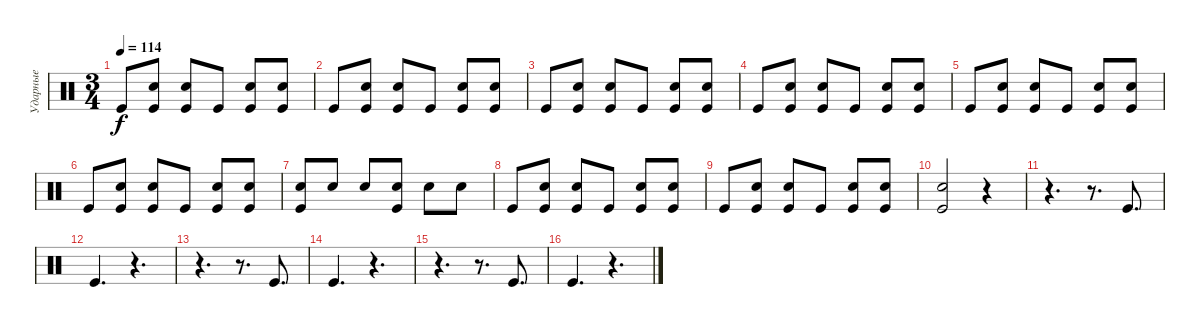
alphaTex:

\track ("Ударные" "Ударные") {instrument percussion}
\staff {score}
\articulation defaults
\ts (3 4)
\tempo 114
\clef neutral
\ks c "Kick (hit)".8{dy f}
("Snare (hit) 2" "Kick (hit)").8 ("Snare (hit) 2" "Kick (hit)").8 "Kick (hit)".8 ("Snare (hit) 2" "Kick (hit)").8 ("Snare (hit) 2" "Kick (hit)").8 |
"Kick (hit)".8 ("Snare (hit) 2" "Kick (hit)").8 ("Snare (hit) 2" "Kick (hit)").8 "Kick (hit)".8 ("Snare (hit) 2" "Kick (hit)").8 ("Snare (hit) 2" "Kick (hit)").8 |
"Kick (hit)".8 ("Snare (hit) 2" "Kick (hit)").8 ("Snare (hit) 2" "Kick (hit)").8 "Kick (hit)".8 ("Snare (hit) 2" "Kick (hit)").8 ("Snare (hit) 2" "Kick (hit)").8 |
"Kick (hit)".8 ("Snare (hit) 2" "Kick (hit)").8 ("Snare (hit) 2" "Kick (hit)").8 "Kick (hit)".8 ("Snare (hit) 2" "Kick (hit)").8 ("Snare (hit) 2" "Kick (hit)").8 |
"Kick (hit)".8 ("Snare (hit) 2" "Kick (hit)").8 ("Snare (hit) 2" "Kick (hit)").8 "Kick (hit)".8 ("Snare (hit) 2" "Kick (hit)").8 ("Snare (hit) 2" "Kick (hit)").8 |
"Kick (hit)".8 ("Snare (hit) 2" "Kick (hit)").8 ("Snare (hit) 2" "Kick (hit)").8 "Kick (hit)".8 ("Snare (hit) 2" "Kick (hit)").8 ("Snare (hit) 2" "Kick (hit)").8 |
("Kick (hit)" "Snare (hit) 2").8 "Snare (hit) 2".8 "Snare (hit) 2".8 ("Kick (hit)" "Snare (hit) 2").8 "Snare (hit) 2".8 "Snare (hit) 2".8 |
"Kick (hit)".8 ("Snare (hit) 2" "Kick (hit)").8 ("Snare (hit) 2" "Kick (hit)").8 "Kick (hit)".8 ("Snare (hit) 2" "Kick (hit)").8 ("Snare (hit) 2" "Kick (hit)").8 |
"Kick (hit)".8 ("Snare (hit) 2" "Kick (hit)").8 ("Snare (hit) 2" "Kick (hit)").8 "Kick (hit)".8 ("Snare (hit) 2" "Kick (hit)").8 ("Snare (hit) 2" "Kick (hit)").8 |
("Snare (hit) 2" "Kick (hit)").2{volume 15} r.4 |
r.4{d volume 7} r.8{d} "Kick (hit)".8{d} |
"Kick (hit)".4{d} r.4{d} |
r.4{d} r.8{d} "Kick (hit)".8{d} |
"Kick (hit)".4{d} r.4{d} |
r.4{d} r.8{d} "Kick (hit)".8{d} |
"Kick (hit)".4{d} r.4{d}
